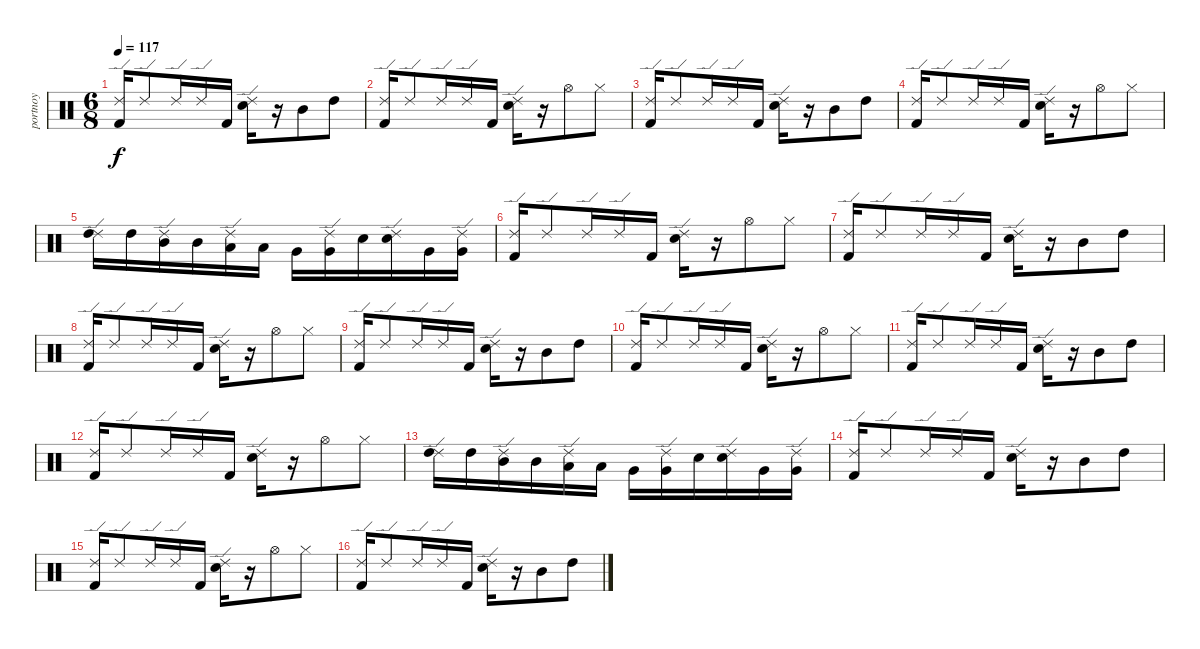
\track ("portnoy" "portnoy") {instrument percussion}
\staff {score}
\articulation defaults
\ts (6 8)
\tempo 117
\clef neutral
\ks c
("Ride (edge) 2" "Kick (hit) 2").16{dy f} "Ride (edge) 2".8 "Ride (edge) 2".16 "Ride (edge) 2".16 "Kick (hit) 2".16 ("Ride (edge) 2" "Electric Snare (hit)").16 r.16 "Mid Tom (hit)".8 "High Tom (hit)".8 |
("Ride (edge) 2" "Kick (hit) 2").16 "Ride (edge) 2".8 "Ride (edge) 2".16 "Ride (edge) 2".16 "Kick (hit) 2".16 ("Ride (edge) 2" "Electric Snare (hit)").16 r.16 "Hi-Hat (open)".8 "Hi-Hat (closed)".8 |
("Ride (edge) 2" "Kick (hit) 2").16 "Ride (edge) 2".8 "Ride (edge) 2".16 "Ride (edge) 2".16 "Kick (hit) 2".16 ("Ride (edge) 2" "Electric Snare (hit)").16 r.16 "Mid Tom (hit)".8 "High Tom (hit)".8 |
("Ride (edge) 2" "Kick (hit) 2").16 "Ride (edge) 2".8 "Ride (edge) 2".16 "Ride (edge) 2".16 "Kick (hit) 2".16 ("Ride (edge) 2" "Electric Snare (hit)").16 r.16 "Hi-Hat (open)".8 "Hi-Hat (closed)".8 |
("Ride (edge) 2" "High Tom (hit)").16 "High Tom (hit)".16 ("Ride (edge) 2" "Mid Tom (hit)").16 "Mid Tom (hit)".16 ("Ride (edge) 2" "Low Tom (hit)").16 "Low Tom (hit)".16 "Very Low Tom (hit)".16 ("Ride (edge) 2" "Very Low Tom (hit)").16 "Electric Snare (hit)".16 ("Ride (edge) 2" "Electric Snare (hit)").16 "Very Low Tom (hit)".16 ("Ride (edge) 2" "Very Low Tom (hit)").16 |
("Ride (edge) 2" "Kick (hit) 2").16 "Ride (edge) 2".8 "Ride (edge) 2".16 "Ride (edge) 2".16 "Kick (hit) 2".16 ("Ride (edge) 2" "Electric Snare (hit)").16 r.16 "Hi-Hat (open)".8 "Hi-Hat (closed)".8 |
("Ride (edge) 2" "Kick (hit) 2").16 "Ride (edge) 2".8 "Ride (edge) 2".16 "Ride (edge) 2".16 "Kick (hit) 2".16 ("Ride (edge) 2" "Electric Snare (hit)").16 r.16 "Mid Tom (hit)".8 "High Tom (hit)".8 |
("Ride (edge) 2" "Kick (hit) 2").16 "Ride (edge) 2".8 "Ride (edge) 2".16 "Ride (edge) 2".16 "Kick (hit) 2".16 ("Ride (edge) 2" "Electric Snare (hit)").16 r.16 "Hi-Hat (open)".8 "Hi-Hat (closed)".8 |
("Ride (edge) 2" "Kick (hit) 2").16 "Ride (edge) 2".8 "Ride (edge) 2".16 "Ride (edge) 2".16 "Kick (hit) 2".16 ("Ride (edge) 2" "Electric Snare (hit)").16 r.16 "Mid Tom (hit)".8 "High Tom (hit)".8 |
("Ride (edge) 2" "Kick (hit) 2").16 "Ride (edge) 2".8 "Ride (edge) 2".16 "Ride (edge) 2".16 "Kick (hit) 2".16 ("Ride (edge) 2" "Electric Snare (hit)").16 r.16 "Hi-Hat (open)".8 "Hi-Hat (closed)".8 |
("Ride (edge) 2" "Kick (hit) 2").16 "Ride (edge) 2".8 "Ride (edge) 2".16 "Ride (edge) 2".16 "Kick (hit) 2".16 ("Ride (edge) 2" "Electric Snare (hit)").16 r.16 "Mid Tom (hit)".8 "High Tom (hit)".8 |
("Ride (edge) 2" "Kick (hit) 2").16 "Ride (edge) 2".8 "Ride (edge) 2".16 "Ride (edge) 2".16 "Kick (hit) 2".16 ("Ride (edge) 2" "Electric Snare (hit)").16 r.16 "Hi-Hat (open)".8 "Hi-Hat (closed)".8 |
("Ride (edge) 2" "High Tom (hit)").16 "High Tom (hit)".16 ("Ride (edge) 2" "Mid Tom (hit)").16 "Mid Tom (hit)".16 ("Ride (edge) 2" "Low Tom (hit)").16 "Low Tom (hit)".16 "Very Low Tom (hit)".16 ("Ride (edge) 2" "Very Low Tom (hit)").16 "Electric Snare (hit)".16 ("Ride (edge) 2" "Electric Snare (hit)").16 "Very Low Tom (hit)".16 ("Ride (edge) 2" "Very Low Tom (hit)").16 |
("Ride (edge) 2" "Kick (hit) 2").16 "Ride (edge) 2".8 "Ride (edge) 2".16 "Ride (edge) 2".16 "Kick (hit) 2".16 ("Ride (edge) 2" "Electric Snare (hit)").16 r.16 "Mid Tom (hit)".8 "High Tom (hit)".8 |
("Ride (edge) 2" "Kick (hit) 2").16 "Ride (edge) 2".8 "Ride (edge) 2".16 "Ride (edge) 2".16 "Kick (hit) 2".16 ("Ride (edge) 2" "Electric Snare (hit)").16 r.16 "Hi-Hat (open)".8 "Hi-Hat (closed)".8 |
("Ride (edge) 2" "Kick (hit) 2").16 "Ride (edge) 2".8 "Ride (edge) 2".16 "Ride (edge) 2".16 "Kick (hit) 2".16 ("Ride (edge) 2" "Electric Snare (hit)").16 r.16 "Mid Tom (hit)".8 "High Tom (hit)".8
